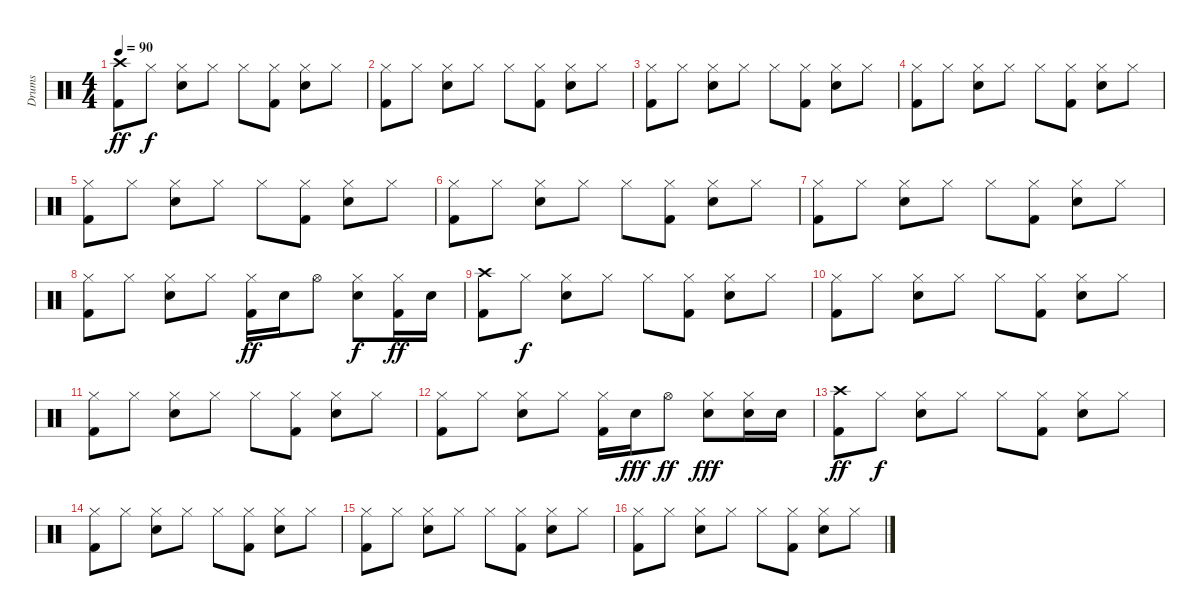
\track ("Drums" "Drums") {instrument percussion}
\staff {score}
\articulation defaults
\ts (4 4)
\tempo 90
\clef neutral
\ks c
("Kick (hit) 2" "Crash high (hit)").8{dy ff} "Hi-Hat (closed)".8{dy f} ("Electric Snare (hit)" "Hi-Hat (closed)").8 "Hi-Hat (closed)".8 "Hi-Hat (closed)".8 ("Kick (hit) 2" "Hi-Hat (closed)").8 ("Electric Snare (hit)" "Hi-Hat (closed)").8 "Hi-Hat (closed)".8 |
("Kick (hit) 2" "Hi-Hat (closed)").8 "Hi-Hat (closed)".8 ("Electric Snare (hit)" "Hi-Hat (closed)").8 "Hi-Hat (closed)".8 "Hi-Hat (closed)".8 ("Kick (hit) 2" "Hi-Hat (closed)").8 ("Electric Snare (hit)" "Hi-Hat (closed)").8 "Hi-Hat (closed)".8 |
("Kick (hit) 2" "Hi-Hat (closed)").8 "Hi-Hat (closed)".8 ("Electric Snare (hit)" "Hi-Hat (closed)").8 "Hi-Hat (closed)".8 "Hi-Hat (closed)".8 ("Kick (hit) 2" "Hi-Hat (closed)").8 ("Electric Snare (hit)" "Hi-Hat (closed)").8 "Hi-Hat (closed)".8 |
("Kick (hit) 2" "Hi-Hat (closed)").8 "Hi-Hat (closed)".8 ("Electric Snare (hit)" "Hi-Hat (closed)").8 "Hi-Hat (closed)".8 "Hi-Hat (closed)".8 ("Kick (hit) 2" "Hi-Hat (closed)").8 ("Electric Snare (hit)" "Hi-Hat (closed)").8 "Hi-Hat (closed)".8 |
("Kick (hit) 2" "Hi-Hat (closed)").8 "Hi-Hat (closed)".8 ("Electric Snare (hit)" "Hi-Hat (closed)").8 "Hi-Hat (closed)".8 "Hi-Hat (closed)".8 ("Kick (hit) 2" "Hi-Hat (closed)").8 ("Electric Snare (hit)" "Hi-Hat (closed)").8 "Hi-Hat (closed)".8 |
("Kick (hit) 2" "Hi-Hat (closed)").8 "Hi-Hat (closed)".8 ("Electric Snare (hit)" "Hi-Hat (closed)").8 "Hi-Hat (closed)".8 "Hi-Hat (closed)".8 ("Kick (hit) 2" "Hi-Hat (closed)").8 ("Electric Snare (hit)" "Hi-Hat (closed)").8 "Hi-Hat (closed)".8 |
("Kick (hit) 2" "Hi-Hat (closed)").8 "Hi-Hat (closed)".8 ("Electric Snare (hit)" "Hi-Hat (closed)").8 "Hi-Hat (closed)".8 "Hi-Hat (closed)".8 ("Kick (hit) 2" "Hi-Hat (closed)").8 ("Electric Snare (hit)" "Hi-Hat (closed)").8 "Hi-Hat (closed)".8 |
("Kick (hit) 2" "Hi-Hat (closed)").8 "Hi-Hat (closed)".8 ("Electric Snare (hit)" "Hi-Hat (closed)").8 "Hi-Hat (closed)".8 ("Kick (hit) 2" "Hi-Hat (closed)").16{dy ff} "Electric Snare (hit)".16 "Hi-Hat (open)".8 ("Electric Snare (hit)" "Hi-Hat (closed)").8{dy f} ("Kick (hit) 2" "Hi-Hat (closed)").16{dy ff} "Electric Snare (hit)".16 |
("Kick (hit) 2" "Crash high (hit)").8 "Hi-Hat (closed)".8{dy f} ("Electric Snare (hit)" "Hi-Hat (closed)").8 "Hi-Hat (closed)".8 "Hi-Hat (closed)".8 ("Kick (hit) 2" "Hi-Hat (closed)").8 ("Electric Snare (hit)" "Hi-Hat (closed)").8 "Hi-Hat (closed)".8 |
("Kick (hit) 2" "Hi-Hat (closed)").8 "Hi-Hat (closed)".8 ("Electric Snare (hit)" "Hi-Hat (closed)").8 "Hi-Hat (closed)".8 "Hi-Hat (closed)".8 ("Kick (hit) 2" "Hi-Hat (closed)").8 ("Electric Snare (hit)" "Hi-Hat (closed)").8 "Hi-Hat (closed)".8 |
("Kick (hit) 2" "Hi-Hat (closed)").8 "Hi-Hat (closed)".8 ("Electric Snare (hit)" "Hi-Hat (closed)").8 "Hi-Hat (closed)".8 "Hi-Hat (closed)".8 ("Kick (hit) 2" "Hi-Hat (closed)").8 ("Electric Snare (hit)" "Hi-Hat (closed)").8 "Hi-Hat (closed)".8 |
("Kick (hit) 2" "Hi-Hat (closed)").8 "Hi-Hat (closed)".8 ("Electric Snare (hit)" "Hi-Hat (closed)").8 "Hi-Hat (closed)".8 ("Kick (hit) 2" "Hi-Hat (closed)").16 "Electric Snare (hit)".16{dy fff} "Hi-Hat (open)".8{dy ff} ("Electric Snare (hit)" "Hi-Hat (closed)").8{dy fff} ("Electric Snare (hit)" "Hi-Hat (closed)").16 "Electric Snare (hit)".16 |
("Kick (hit) 2" "Crash high (hit)").8{dy ff} "Hi-Hat (closed)".8{dy f} ("Electric Snare (hit)" "Hi-Hat (closed)").8 "Hi-Hat (closed)".8 "Hi-Hat (closed)".8 ("Kick (hit) 2" "Hi-Hat (closed)").8 ("Electric Snare (hit)" "Hi-Hat (closed)").8 "Hi-Hat (closed)".8 |
("Kick (hit) 2" "Hi-Hat (closed)").8 "Hi-Hat (closed)".8 ("Electric Snare (hit)" "Hi-Hat (closed)").8 "Hi-Hat (closed)".8 "Hi-Hat (closed)".8 ("Kick (hit) 2" "Hi-Hat (closed)").8 ("Electric Snare (hit)" "Hi-Hat (closed)").8 "Hi-Hat (closed)".8 |
("Kick (hit) 2" "Hi-Hat (closed)").8 "Hi-Hat (closed)".8 ("Electric Snare (hit)" "Hi-Hat (closed)").8 "Hi-Hat (closed)".8 "Hi-Hat (closed)".8 ("Kick (hit) 2" "Hi-Hat (closed)").8 ("Electric Snare (hit)" "Hi-Hat (closed)").8 "Hi-Hat (closed)".8 |
("Kick (hit) 2" "Hi-Hat (closed)").8 "Hi-Hat (closed)".8 ("Electric Snare (hit)" "Hi-Hat (closed)").8 "Hi-Hat (closed)".8 "Hi-Hat (closed)".8 ("Kick (hit) 2" "Hi-Hat (closed)").8 ("Electric Snare (hit)" "Hi-Hat (closed)").8 "Hi-Hat (closed)".8
